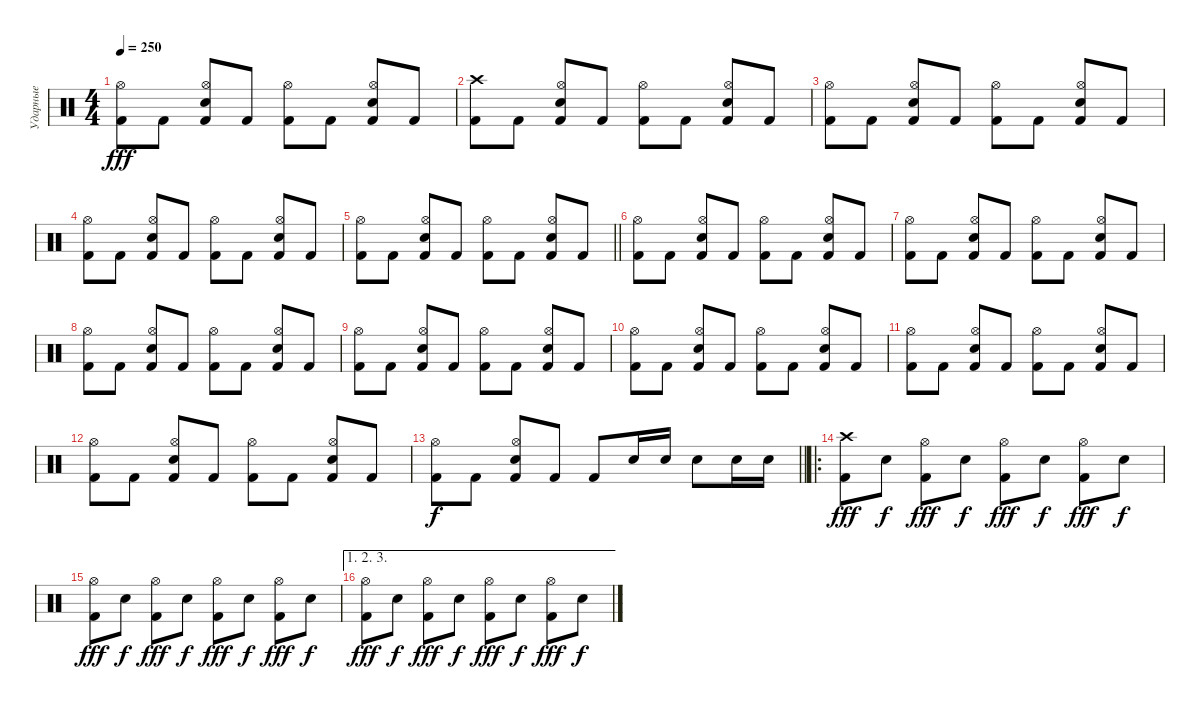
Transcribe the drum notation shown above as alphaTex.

\track ("Ударные" "Ударные") {instrument percussion}
\staff {score}
\articulation defaults
\ts (4 4)
\tempo 250
\clef neutral
\ks c
("Kick (hit) 2" "Hi-Hat (open)").8{dy fff} "Kick (hit) 2".8 ("Kick (hit) 2" "Snare (hit) 2" "Hi-Hat (open)").8 "Kick (hit) 2".8 ("Kick (hit) 2" "Hi-Hat (open)").8 "Kick (hit) 2".8 ("Kick (hit) 2" "Snare (hit) 2" "Hi-Hat (open)").8 "Kick (hit) 2".8 |
("Kick (hit) 2" "Crash high (hit)").8 "Kick (hit) 2".8 ("Kick (hit) 2" "Snare (hit) 2" "Hi-Hat (open)").8 "Kick (hit) 2".8 ("Kick (hit) 2" "Hi-Hat (open)").8 "Kick (hit) 2".8 ("Kick (hit) 2" "Snare (hit) 2" "Hi-Hat (open)").8 "Kick (hit) 2".8 |
("Kick (hit) 2" "Hi-Hat (open)").8 "Kick (hit) 2".8 ("Kick (hit) 2" "Snare (hit) 2" "Hi-Hat (open)").8 "Kick (hit) 2".8 ("Kick (hit) 2" "Hi-Hat (open)").8 "Kick (hit) 2".8 ("Kick (hit) 2" "Snare (hit) 2" "Hi-Hat (open)").8 "Kick (hit) 2".8 |
("Kick (hit) 2" "Hi-Hat (open)").8 "Kick (hit) 2".8 ("Kick (hit) 2" "Snare (hit) 2" "Hi-Hat (open)").8 "Kick (hit) 2".8 ("Kick (hit) 2" "Hi-Hat (open)").8 "Kick (hit) 2".8 ("Kick (hit) 2" "Snare (hit) 2" "Hi-Hat (open)").8 "Kick (hit) 2".8 |
\barLineRight lightlight
("Kick (hit) 2" "Hi-Hat (open)").8 "Kick (hit) 2".8 ("Kick (hit) 2" "Snare (hit) 2" "Hi-Hat (open)").8 "Kick (hit) 2".8 ("Kick (hit) 2" "Hi-Hat (open)").8 "Kick (hit) 2".8 ("Kick (hit) 2" "Snare (hit) 2" "Hi-Hat (open)").8 "Kick (hit) 2".8 |
("Kick (hit) 2" "Hi-Hat (open)").8 "Kick (hit) 2".8 ("Kick (hit) 2" "Snare (hit) 2" "Hi-Hat (open)").8 "Kick (hit) 2".8 ("Kick (hit) 2" "Hi-Hat (open)").8 "Kick (hit) 2".8 ("Kick (hit) 2" "Snare (hit) 2" "Hi-Hat (open)").8 "Kick (hit) 2".8 |
("Kick (hit) 2" "Hi-Hat (open)").8 "Kick (hit) 2".8 ("Kick (hit) 2" "Snare (hit) 2" "Hi-Hat (open)").8 "Kick (hit) 2".8 ("Kick (hit) 2" "Hi-Hat (open)").8 "Kick (hit) 2".8 ("Kick (hit) 2" "Snare (hit) 2" "Hi-Hat (open)").8 "Kick (hit) 2".8 |
("Kick (hit) 2" "Hi-Hat (open)").8 "Kick (hit) 2".8 ("Kick (hit) 2" "Snare (hit) 2" "Hi-Hat (open)").8 "Kick (hit) 2".8 ("Kick (hit) 2" "Hi-Hat (open)").8 "Kick (hit) 2".8 ("Kick (hit) 2" "Snare (hit) 2" "Hi-Hat (open)").8 "Kick (hit) 2".8 |
("Kick (hit) 2" "Hi-Hat (open)").8 "Kick (hit) 2".8 ("Kick (hit) 2" "Snare (hit) 2" "Hi-Hat (open)").8 "Kick (hit) 2".8 ("Kick (hit) 2" "Hi-Hat (open)").8 "Kick (hit) 2".8 ("Kick (hit) 2" "Snare (hit) 2" "Hi-Hat (open)").8 "Kick (hit) 2".8 |
("Kick (hit) 2" "Hi-Hat (open)").8 "Kick (hit) 2".8 ("Kick (hit) 2" "Snare (hit) 2" "Hi-Hat (open)").8 "Kick (hit) 2".8 ("Kick (hit) 2" "Hi-Hat (open)").8 "Kick (hit) 2".8 ("Kick (hit) 2" "Snare (hit) 2" "Hi-Hat (open)").8 "Kick (hit) 2".8 |
("Kick (hit) 2" "Hi-Hat (open)").8 "Kick (hit) 2".8 ("Kick (hit) 2" "Snare (hit) 2" "Hi-Hat (open)").8 "Kick (hit) 2".8 ("Kick (hit) 2" "Hi-Hat (open)").8 "Kick (hit) 2".8 ("Kick (hit) 2" "Snare (hit) 2" "Hi-Hat (open)").8 "Kick (hit) 2".8 |
("Kick (hit) 2" "Hi-Hat (open)").8 "Kick (hit) 2".8 ("Kick (hit) 2" "Snare (hit) 2" "Hi-Hat (open)").8 "Kick (hit) 2".8 ("Kick (hit) 2" "Hi-Hat (open)").8 "Kick (hit) 2".8 ("Kick (hit) 2" "Snare (hit) 2" "Hi-Hat (open)").8 "Kick (hit) 2".8 |
\barLineRight lightlight
("Kick (hit) 2" "Hi-Hat (open)").8{dy f} "Kick (hit) 2".8 ("Kick (hit) 2" "Snare (hit) 2" "Hi-Hat (open)").8 "Kick (hit) 2".8 "Kick (hit) 2".8 "Snare (hit) 2".16 "Snare (hit) 2".16 "Snare (hit) 2".8 "Snare (hit) 2".16 "Snare (hit) 2".16 |
\ro
("Kick (hit) 2" "Crash high (hit)").8{dy fff} "Snare (hit) 2".8{dy f} ("Kick (hit) 2" "Hi-Hat (open)").8{dy fff} "Snare (hit) 2".8{dy f} ("Kick (hit) 2" "Hi-Hat (open)").8{dy fff} "Snare (hit) 2".8{dy f} ("Kick (hit) 2" "Hi-Hat (open)").8{dy fff} "Snare (hit) 2".8{dy f} |
("Kick (hit) 2" "Hi-Hat (open)").8{dy fff} "Snare (hit) 2".8{dy f} ("Kick (hit) 2" "Hi-Hat (open)").8{dy fff} "Snare (hit) 2".8{dy f} ("Kick (hit) 2" "Hi-Hat (open)").8{dy fff} "Snare (hit) 2".8{dy f} ("Kick (hit) 2" "Hi-Hat (open)").8{dy fff} "Snare (hit) 2".8{dy f} |
\ae (1 2 3)
("Kick (hit) 2" "Hi-Hat (open)").8{dy fff} "Snare (hit) 2".8{dy f} ("Kick (hit) 2" "Hi-Hat (open)").8{dy fff} "Snare (hit) 2".8{dy f} ("Kick (hit) 2" "Hi-Hat (open)").8{dy fff} "Snare (hit) 2".8{dy f} ("Kick (hit) 2" "Hi-Hat (open)").8{dy fff} "Snare (hit) 2".8{dy f}
